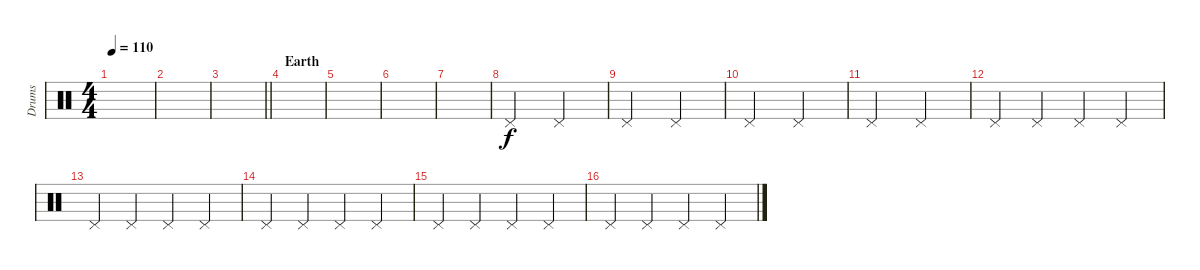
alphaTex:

\track ("Drums" "Drums") {instrument percussion}
\staff {score}
\articulation defaults
\ts (4 4)
\tempo 110
\clef neutral
\ks c
|
|
\barLineRight lightlight
|
\section ("" "Earth")
|
|
|
|
"Pedal Hi-Hat (hit)".2{dy f} "Pedal Hi-Hat (hit)".2 |
"Pedal Hi-Hat (hit)".2 "Pedal Hi-Hat (hit)".2 |
"Pedal Hi-Hat (hit)".2 "Pedal Hi-Hat (hit)".2 |
"Pedal Hi-Hat (hit)".2 "Pedal Hi-Hat (hit)".2 |
"Pedal Hi-Hat (hit)".4 "Pedal Hi-Hat (hit)".4 "Pedal Hi-Hat (hit)".4 "Pedal Hi-Hat (hit)".4 |
"Pedal Hi-Hat (hit)".4 "Pedal Hi-Hat (hit)".4 "Pedal Hi-Hat (hit)".4 "Pedal Hi-Hat (hit)".4 |
"Pedal Hi-Hat (hit)".4 "Pedal Hi-Hat (hit)".4 "Pedal Hi-Hat (hit)".4 "Pedal Hi-Hat (hit)".4 |
"Pedal Hi-Hat (hit)".4 "Pedal Hi-Hat (hit)".4 "Pedal Hi-Hat (hit)".4 "Pedal Hi-Hat (hit)".4 |
"Pedal Hi-Hat (hit)".4 "Pedal Hi-Hat (hit)".4 "Pedal Hi-Hat (hit)".4 "Pedal Hi-Hat (hit)".4
